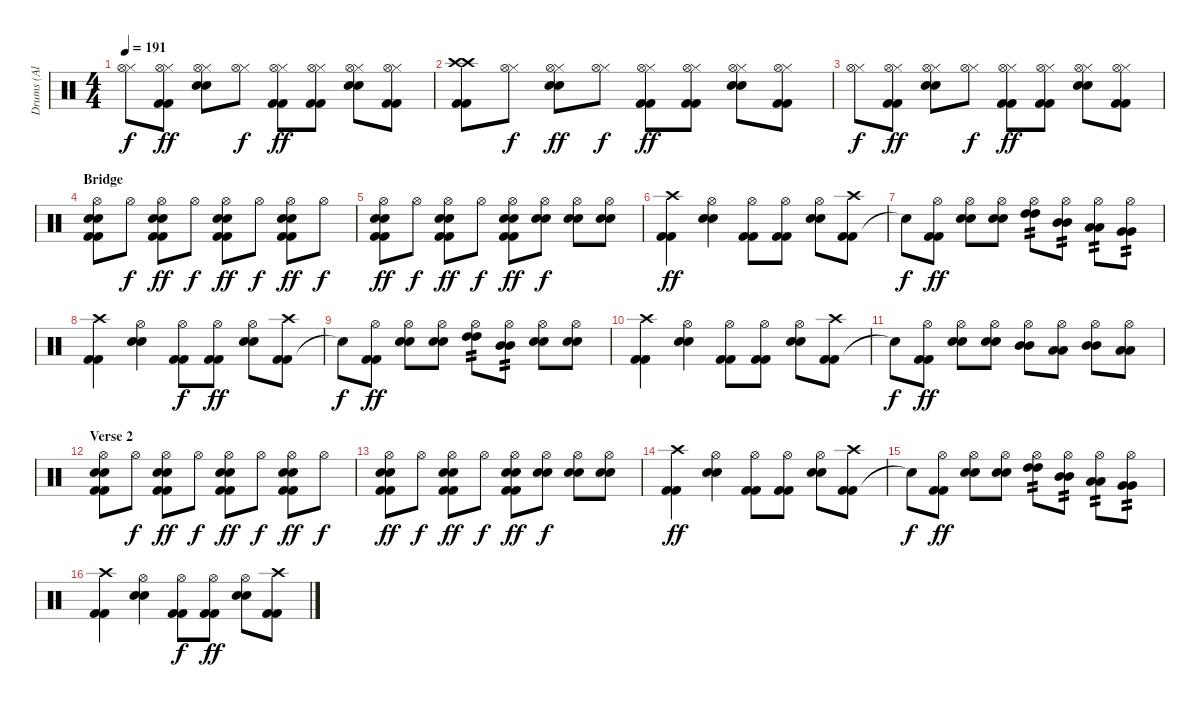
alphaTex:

\track ("Drums (Al Sobrante)" "Drums (Al ") {instrument percussion}
\staff {score}
\articulation defaults
\ts (4 4)
\tempo 191
\clef neutral
\ks c
("Hi-Hat (closed)" "Hi-Hat (open)").8{dy f} ("Kick (hit) 2" "Kick (hit) 2" "Hi-Hat (closed)" "Hi-Hat (open)").8{dy ff} ("Electric Snare (hit)" "Electric Snare (hit)" "Hi-Hat (closed)" "Hi-Hat (open)").8 ("Hi-Hat (closed)" "Hi-Hat (open)").8{dy f} ("Kick (hit) 2" "Kick (hit) 2" "Hi-Hat (closed)" "Hi-Hat (open)").8{dy ff} ("Kick (hit) 2" "Kick (hit) 2" "Hi-Hat (closed)" "Hi-Hat (open)").8 ("Electric Snare (hit)" "Electric Snare (hit)" "Hi-Hat (closed)" "Hi-Hat (open)").8 ("Kick (hit) 2" "Kick (hit) 2" "Hi-Hat (closed)" "Hi-Hat (open)").8 |
("Kick (hit) 2" "Kick (hit) 2" "Crash high (hit)" "Crash high (hit)").8 ("Hi-Hat (closed)" "Hi-Hat (open)").8{dy f} ("Electric Snare (hit)" "Electric Snare (hit)" "Hi-Hat (closed)" "Hi-Hat (open)").8{dy ff} ("Hi-Hat (closed)" "Hi-Hat (open)").8{dy f} ("Kick (hit) 2" "Kick (hit) 2" "Hi-Hat (closed)" "Hi-Hat (open)").8{dy ff} ("Kick (hit) 2" "Kick (hit) 2" "Hi-Hat (closed)" "Hi-Hat (open)").8 ("Electric Snare (hit)" "Electric Snare (hit)" "Hi-Hat (closed)" "Hi-Hat (open)").8 ("Kick (hit) 2" "Kick (hit) 2" "Hi-Hat (closed)" "Hi-Hat (open)").8 |
("Hi-Hat (closed)" "Hi-Hat (open)").8{dy f} ("Kick (hit) 2" "Kick (hit) 2" "Hi-Hat (closed)" "Hi-Hat (open)").8{dy ff} ("Electric Snare (hit)" "Electric Snare (hit)" "Hi-Hat (closed)" "Hi-Hat (open)").8 ("Hi-Hat (closed)" "Hi-Hat (open)").8{dy f} ("Kick (hit) 2" "Kick (hit) 2" "Hi-Hat (closed)" "Hi-Hat (open)").8{dy ff} ("Kick (hit) 2" "Kick (hit) 2" "Hi-Hat (closed)" "Hi-Hat (open)").8 ("Electric Snare (hit)" "Electric Snare (hit)" "Hi-Hat (closed)" "Hi-Hat (open)").8 ("Kick (hit) 2" "Kick (hit) 2" "Hi-Hat (closed)" "Hi-Hat (open)").8 |
\section ("" "Bridge")
("Kick (hit) 2" "Kick (hit) 2" "Electric Snare (hit)" "Electric Snare (hit)" "Hi-Hat (open)").8 "Hi-Hat (open)".8{dy f} ("Kick (hit) 2" "Kick (hit) 2" "Electric Snare (hit)" "Electric Snare (hit)" "Hi-Hat (open)").8{dy ff} "Hi-Hat (open)".8{dy f} ("Kick (hit) 2" "Kick (hit) 2" "Electric Snare (hit)" "Electric Snare (hit)" "Hi-Hat (open)").8{dy ff} "Hi-Hat (open)".8{dy f} ("Kick (hit) 2" "Kick (hit) 2" "Electric Snare (hit)" "Electric Snare (hit)" "Hi-Hat (open)").8{dy ff} "Hi-Hat (open)".8{dy f} |
("Kick (hit) 2" "Kick (hit) 2" "Electric Snare (hit)" "Electric Snare (hit)" "Hi-Hat (open)").8{dy ff} "Hi-Hat (open)".8{dy f} ("Kick (hit) 2" "Kick (hit) 2" "Electric Snare (hit)" "Electric Snare (hit)" "Hi-Hat (open)").8{dy ff} "Hi-Hat (open)".8{dy f} ("Kick (hit) 2" "Kick (hit) 2" "Electric Snare (hit)" "Electric Snare (hit)" "Hi-Hat (open)").8{dy ff} ("Electric Snare (hit)" "Electric Snare (hit)" "Hi-Hat (open)").8{dy f} ("Electric Snare (hit)" "Electric Snare (hit)" "Hi-Hat (open)").8 ("Electric Snare (hit)" "Electric Snare (hit)" "Hi-Hat (open)").8 |
("Kick (hit) 2" "Kick (hit) 2" "Crash high (hit)").4{dy ff} ("Electric Snare (hit)" "Electric Snare (hit)" "Hi-Hat (open)").4 ("Kick (hit) 2" "Kick (hit) 2" "Hi-Hat (open)").8 ("Kick (hit) 2" "Kick (hit) 2" "Hi-Hat (open)").8 ("Electric Snare (hit)" "Electric Snare (hit)" "Hi-Hat (open)").8 ("Kick (hit) 2" "Kick (hit) 2" "Crash high (hit)").8 |
"Snare (hit)"{t}.8{dy f} ("Kick (hit) 2" "Kick (hit) 2" "Hi-Hat (open)").8{dy ff} ("Electric Snare (hit)" "Electric Snare (hit)" "Hi-Hat (open)").8 ("Electric Snare (hit)" "Electric Snare (hit)" "Hi-Hat (open)").8 ("High Tom (hit)" "High Tom (hit)" "Hi-Hat (open)").8{tp 2} ("Mid Tom (hit)" "Mid Tom (hit)" "Hi-Hat (open)").8{tp 2} ("Low Tom (hit)" "Low Tom (hit)" "Hi-Hat (open)").8{tp 2} ("Very Low Tom (hit)" "Very Low Tom (hit)" "Hi-Hat (open)").8{tp 2} |
("Kick (hit) 2" "Kick (hit) 2" "Crash high (hit)").4 ("Electric Snare (hit)" "Electric Snare (hit)" "Hi-Hat (open)").4 ("Kick (hit) 2" "Kick (hit) 2" "Hi-Hat (open)").8{dy f} ("Kick (hit) 2" "Kick (hit) 2" "Hi-Hat (open)").8{dy ff} ("Electric Snare (hit)" "Electric Snare (hit)" "Hi-Hat (open)").8 ("Kick (hit) 2" "Kick (hit) 2" "Crash high (hit)").8 |
"Snare (hit)"{t}.8{dy f} ("Kick (hit) 2" "Kick (hit) 2" "Hi-Hat (open)").8{dy ff} ("Electric Snare (hit)" "Electric Snare (hit)" "Hi-Hat (open)").8 ("Electric Snare (hit)" "Electric Snare (hit)" "Hi-Hat (open)").8 ("High Tom (hit)" "High Tom (hit)" "Hi-Hat (open)").8{tp 2} ("Mid Tom (hit)" "Mid Tom (hit)" "Hi-Hat (open)").8{tp 2} ("Electric Snare (hit)" "Electric Snare (hit)" "Hi-Hat (open)").8 ("Electric Snare (hit)" "Electric Snare (hit)" "Hi-Hat (open)").8 |
("Kick (hit) 2" "Kick (hit) 2" "Crash high (hit)").4 ("Electric Snare (hit)" "Electric Snare (hit)" "Hi-Hat (open)").4 ("Kick (hit) 2" "Kick (hit) 2" "Hi-Hat (open)").8 ("Kick (hit) 2" "Kick (hit) 2" "Hi-Hat (open)").8 ("Electric Snare (hit)" "Electric Snare (hit)" "Hi-Hat (open)").8 ("Kick (hit) 2" "Kick (hit) 2" "Crash high (hit)").8 |
"Snare (hit)"{t}.8{dy f} ("Kick (hit) 2" "Kick (hit) 2" "Hi-Hat (open)").8{dy ff} ("Electric Snare (hit)" "Electric Snare (hit)" "Hi-Hat (open)").8 ("Electric Snare (hit)" "Electric Snare (hit)" "Hi-Hat (open)").8 ("Mid Tom (hit)" "Mid Tom (hit)" "Hi-Hat (open)").8 ("Low Tom (hit)" "Low Tom (hit)" "Hi-Hat (open)").8 ("Mid Tom (hit)" "Mid Tom (hit)" "Hi-Hat (open)").8 ("Low Tom (hit)" "Low Tom (hit)" "Hi-Hat (open)").8 |
\section ("" "Verse 2")
("Kick (hit) 2" "Kick (hit) 2" "Electric Snare (hit)" "Electric Snare (hit)" "Hi-Hat (open)").8 "Hi-Hat (open)".8{dy f} ("Kick (hit) 2" "Kick (hit) 2" "Electric Snare (hit)" "Electric Snare (hit)" "Hi-Hat (open)").8{dy ff} "Hi-Hat (open)".8{dy f} ("Kick (hit) 2" "Kick (hit) 2" "Electric Snare (hit)" "Electric Snare (hit)" "Hi-Hat (open)").8{dy ff} "Hi-Hat (open)".8{dy f} ("Kick (hit) 2" "Kick (hit) 2" "Electric Snare (hit)" "Electric Snare (hit)" "Hi-Hat (open)").8{dy ff} "Hi-Hat (open)".8{dy f} |
("Kick (hit) 2" "Kick (hit) 2" "Electric Snare (hit)" "Electric Snare (hit)" "Hi-Hat (open)").8{dy ff} "Hi-Hat (open)".8{dy f} ("Kick (hit) 2" "Kick (hit) 2" "Electric Snare (hit)" "Electric Snare (hit)" "Hi-Hat (open)").8{dy ff} "Hi-Hat (open)".8{dy f} ("Kick (hit) 2" "Kick (hit) 2" "Electric Snare (hit)" "Electric Snare (hit)" "Hi-Hat (open)").8{dy ff} ("Electric Snare (hit)" "Electric Snare (hit)" "Hi-Hat (open)").8{dy f} ("Electric Snare (hit)" "Electric Snare (hit)" "Hi-Hat (open)").8 ("Electric Snare (hit)" "Electric Snare (hit)" "Hi-Hat (open)").8 |
("Kick (hit) 2" "Kick (hit) 2" "Crash high (hit)").4{dy ff} ("Electric Snare (hit)" "Electric Snare (hit)" "Hi-Hat (open)").4 ("Kick (hit) 2" "Kick (hit) 2" "Hi-Hat (open)").8 ("Kick (hit) 2" "Kick (hit) 2" "Hi-Hat (open)").8 ("Electric Snare (hit)" "Electric Snare (hit)" "Hi-Hat (open)").8 ("Kick (hit) 2" "Kick (hit) 2" "Crash high (hit)").8 |
"Snare (hit)"{t}.8{dy f} ("Kick (hit) 2" "Kick (hit) 2" "Hi-Hat (open)").8{dy ff} ("Electric Snare (hit)" "Electric Snare (hit)" "Hi-Hat (open)").8 ("Electric Snare (hit)" "Electric Snare (hit)" "Hi-Hat (open)").8 ("High Tom (hit)" "High Tom (hit)" "Hi-Hat (open)").8{tp 2} ("Mid Tom (hit)" "Mid Tom (hit)" "Hi-Hat (open)").8{tp 2} ("Low Tom (hit)" "Low Tom (hit)" "Hi-Hat (open)").8{tp 2} ("Very Low Tom (hit)" "Very Low Tom (hit)" "Hi-Hat (open)").8{tp 2} |
("Kick (hit) 2" "Kick (hit) 2" "Crash high (hit)").4 ("Electric Snare (hit)" "Electric Snare (hit)" "Hi-Hat (open)").4 ("Kick (hit) 2" "Kick (hit) 2" "Hi-Hat (open)").8{dy f} ("Kick (hit) 2" "Kick (hit) 2" "Hi-Hat (open)").8{dy ff} ("Electric Snare (hit)" "Electric Snare (hit)" "Hi-Hat (open)").8 ("Kick (hit) 2" "Kick (hit) 2" "Crash high (hit)").8
